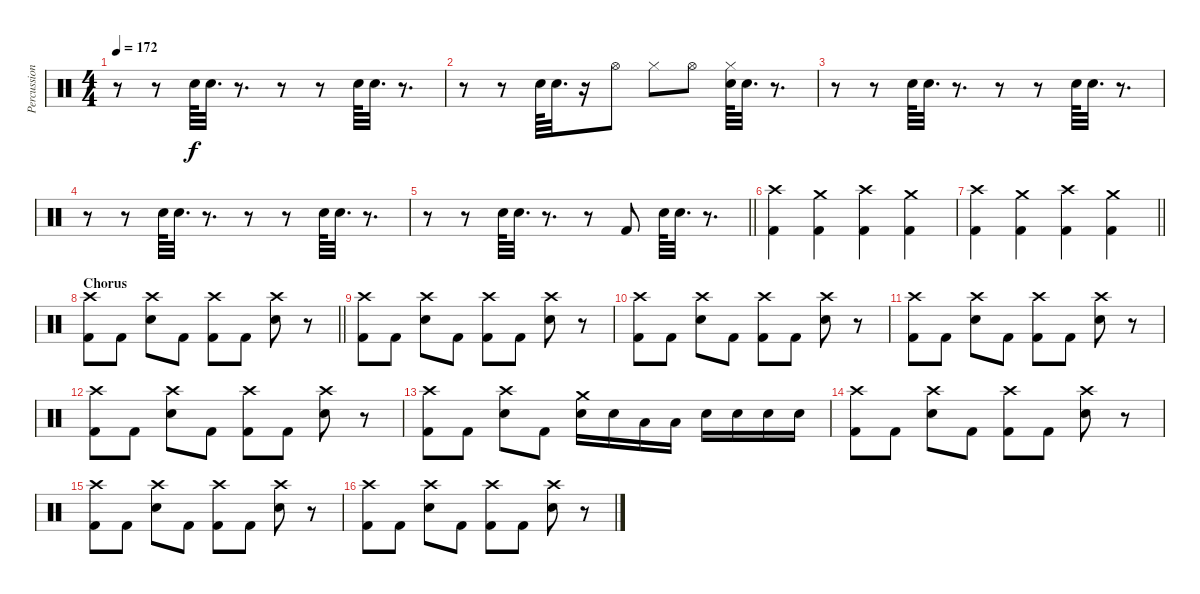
\track ("Percussion" "Percussion") {instrument percussion}
\staff {score}
\articulation defaults
\ts (4 4)
\tempo 172
\clef neutral
\ks c
r.8{dy f} r.8 "Snare (hit) 2".64 "Snare (hit) 2".32{d} r.8{d} r.8 r.8 "Snare (hit) 2".64 "Snare (hit) 2".32{d} r.8{d} |
r.8 r.8 "Snare (hit) 2".64 "Snare (hit) 2".32{d} r.16 "Hi-Hat (open)".8 "Hi-Hat (closed)".8 "Hi-Hat (open)".8 ("Snare (hit) 2" "Hi-Hat (closed)").64 "Snare (hit) 2".32{d} r.8{d} |
r.8 r.8 "Snare (hit) 2".64 "Snare (hit) 2".32{d} r.8{d} r.8 r.8 "Snare (hit) 2".64 "Snare (hit) 2".32{d} r.8{d} |
r.8 r.8 "Snare (hit) 2".64 "Snare (hit) 2".32{d} r.8{d} r.8 r.8 "Snare (hit) 2".64 "Snare (hit) 2".32{d} r.8{d} |
\barLineRight lightlight
r.8 r.8 "Snare (hit) 2".64 "Snare (hit) 2".32{d} r.8{d} r.8 "Kick (hit) 2".8 "Snare (hit) 2".64 "Snare (hit) 2".32{d} r.8{d} |
("Crash high (hit)" "Kick (hit) 2").4 ("Crash medium (hit)" "Kick (hit) 2").4 ("Crash high (hit)" "Kick (hit) 2").4 ("Crash medium (hit)" "Kick (hit) 2").4 |
\barLineRight lightlight
("Crash high (hit)" "Kick (hit) 2").4 ("Crash medium (hit)" "Kick (hit) 2").4 ("Crash high (hit)" "Kick (hit) 2").4 ("Crash medium (hit)" "Kick (hit) 2").4 |
\section ("" "Chorus")
\barLineRight lightlight
("Crash high (hit)" "Kick (hit) 2").8 "Kick (hit) 2".8 ("Crash high (hit)" "Snare (hit) 2").8 "Kick (hit) 2".8 ("Crash high (hit)" "Kick (hit) 2").8 "Kick (hit) 2".8 ("Crash high (hit)" "Snare (hit) 2").8 r.8 |
("Crash high (hit)" "Kick (hit) 2").8 "Kick (hit) 2".8 ("Crash high (hit)" "Snare (hit) 2").8 "Kick (hit) 2".8 ("Crash high (hit)" "Kick (hit) 2").8 "Kick (hit) 2".8 ("Crash high (hit)" "Snare (hit) 2").8 r.8 |
("Crash high (hit)" "Kick (hit) 2").8 "Kick (hit) 2".8 ("Crash high (hit)" "Snare (hit) 2").8 "Kick (hit) 2".8 ("Crash high (hit)" "Kick (hit) 2").8 "Kick (hit) 2".8 ("Crash high (hit)" "Snare (hit) 2").8 r.8 |
("Crash high (hit)" "Kick (hit) 2").8 "Kick (hit) 2".8 ("Crash high (hit)" "Snare (hit) 2").8 "Kick (hit) 2".8 ("Crash high (hit)" "Kick (hit) 2").8 "Kick (hit) 2".8 ("Crash high (hit)" "Snare (hit) 2").8 r.8 |
("Crash high (hit)" "Kick (hit) 2").8 "Kick (hit) 2".8 ("Crash high (hit)" "Snare (hit) 2").8 "Kick (hit) 2".8 ("Crash high (hit)" "Kick (hit) 2").8 "Kick (hit) 2".8 ("Crash high (hit)" "Snare (hit) 2").8 r.8 |
("Crash high (hit)" "Kick (hit) 2").8 "Kick (hit) 2".8 ("Crash high (hit)" "Snare (hit) 2").8 "Kick (hit) 2".8 ("Crash medium (hit)" "Snare (hit) 2").16 "Snare (hit) 2".16 "Low Tom (hit)".16 "Low Floor Tom (hit)".16 "Snare (hit) 2".16 "Snare (hit) 2".16 "Snare (hit) 2".16 "Snare (hit) 2".16 |
("Crash high (hit)" "Kick (hit) 2").8 "Kick (hit) 2".8 ("Crash high (hit)" "Snare (hit) 2").8 "Kick (hit) 2".8 ("Crash high (hit)" "Kick (hit) 2").8 "Kick (hit) 2".8 ("Crash high (hit)" "Snare (hit) 2").8 r.8 |
("Crash high (hit)" "Kick (hit) 2").8 "Kick (hit) 2".8 ("Crash high (hit)" "Snare (hit) 2").8 "Kick (hit) 2".8 ("Crash high (hit)" "Kick (hit) 2").8 "Kick (hit) 2".8 ("Crash high (hit)" "Snare (hit) 2").8 r.8 |
("Crash high (hit)" "Kick (hit) 2").8 "Kick (hit) 2".8 ("Crash high (hit)" "Snare (hit) 2").8 "Kick (hit) 2".8 ("Crash high (hit)" "Kick (hit) 2").8 "Kick (hit) 2".8 ("Crash high (hit)" "Snare (hit) 2").8 r.8
